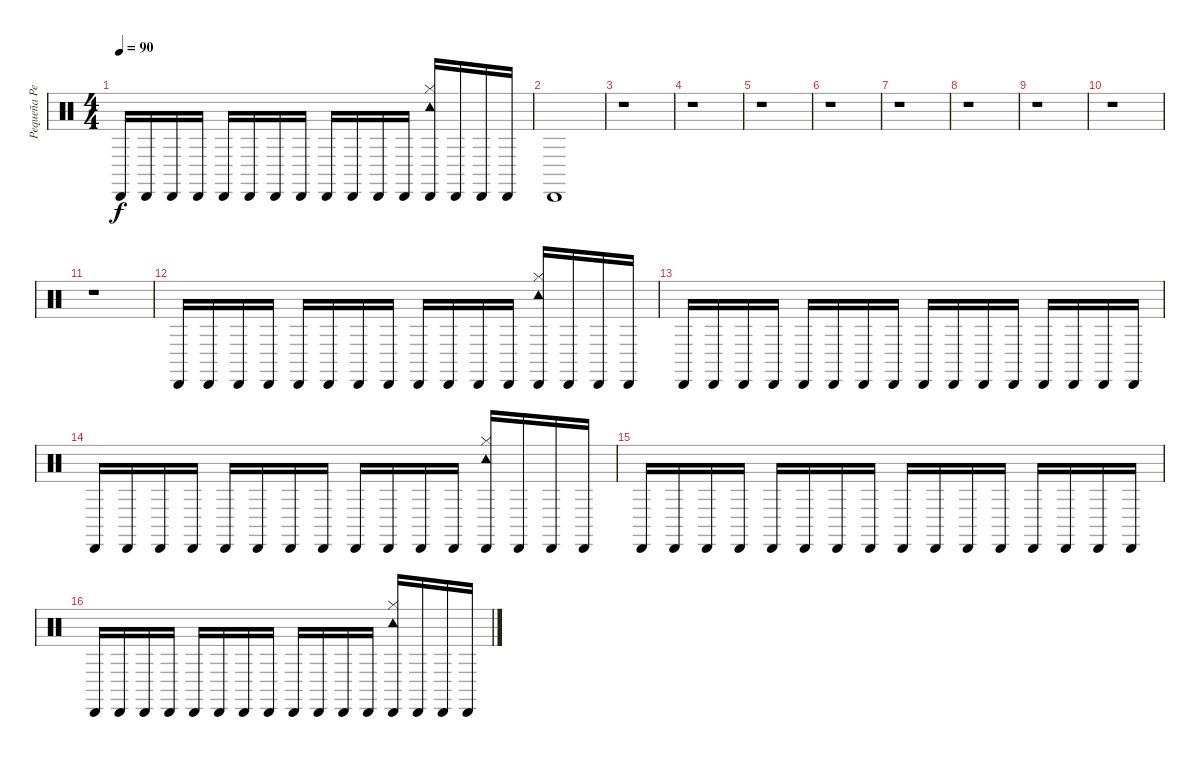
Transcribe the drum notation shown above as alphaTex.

\track ("Pequeña Percusión" "Pequeña Pe") {instrument percussion}
\staff {score}
\articulation defaults
\ts (4 4)
\tempo 90
\clef neutral
\ks c "Cabasa (hit)".16{dy f} "Cabasa (hit)".16 "Cabasa (hit)".16 "Cabasa (hit)".16 "Cabasa (hit)".16 "Cabasa (hit)".16 "Cabasa (hit)".16 "Cabasa (hit)".16 "Cabasa (hit)".16 "Cabasa (hit)".16 "Cabasa (hit)".16 "Cabasa (hit)".16
("Cabasa (hit)" "Tambourine (hit)" "Hi-Hat (closed)").16 "Cabasa (hit)".16 "Cabasa (hit)".16 "Cabasa (hit)".16 |
"Cabasa (hit)".1 |
r.1 |
r.1 |
r.1 |
r.1 |
r.1 |
r.1 |
r.1 |
r.1 |
r.1 |
"Cabasa (hit)".16 "Cabasa (hit)".16 "Cabasa (hit)".16 "Cabasa (hit)".16 "Cabasa (hit)".16 "Cabasa (hit)".16 "Cabasa (hit)".16 "Cabasa (hit)".16 "Cabasa (hit)".16 "Cabasa (hit)".16 "Cabasa (hit)".16 "Cabasa (hit)".16 ("Cabasa (hit)" "Tambourine (hit)" "Hi-Hat (closed)").16 "Cabasa (hit)".16 "Cabasa (hit)".16 "Cabasa (hit)".16 |
"Cabasa (hit)".16 "Cabasa (hit)".16 "Cabasa (hit)".16 "Cabasa (hit)".16 "Cabasa (hit)".16 "Cabasa (hit)".16 "Cabasa (hit)".16 "Cabasa (hit)".16 "Cabasa (hit)".16 "Cabasa (hit)".16 "Cabasa (hit)".16 "Cabasa (hit)".16 "Cabasa (hit)".16 "Cabasa (hit)".16 "Cabasa (hit)".16 "Cabasa (hit)".16 |
"Cabasa (hit)".16 "Cabasa (hit)".16 "Cabasa (hit)".16 "Cabasa (hit)".16 "Cabasa (hit)".16 "Cabasa (hit)".16 "Cabasa (hit)".16 "Cabasa (hit)".16 "Cabasa (hit)".16 "Cabasa (hit)".16 "Cabasa (hit)".16 "Cabasa (hit)".16 ("Cabasa (hit)" "Tambourine (hit)" "Hi-Hat (closed)").16 "Cabasa (hit)".16 "Cabasa (hit)".16 "Cabasa (hit)".16 |
"Cabasa (hit)".16 "Cabasa (hit)".16 "Cabasa (hit)".16 "Cabasa (hit)".16 "Cabasa (hit)".16 "Cabasa (hit)".16 "Cabasa (hit)".16 "Cabasa (hit)".16 "Cabasa (hit)".16 "Cabasa (hit)".16 "Cabasa (hit)".16 "Cabasa (hit)".16 "Cabasa (hit)".16 "Cabasa (hit)".16 "Cabasa (hit)".16 "Cabasa (hit)".16 |
"Cabasa (hit)".16 "Cabasa (hit)".16 "Cabasa (hit)".16 "Cabasa (hit)".16 "Cabasa (hit)".16 "Cabasa (hit)".16 "Cabasa (hit)".16 "Cabasa (hit)".16 "Cabasa (hit)".16 "Cabasa (hit)".16 "Cabasa (hit)".16 "Cabasa (hit)".16 ("Cabasa (hit)" "Tambourine (hit)" "Hi-Hat (closed)").16 "Cabasa (hit)".16 "Cabasa (hit)".16 "Cabasa (hit)".16
